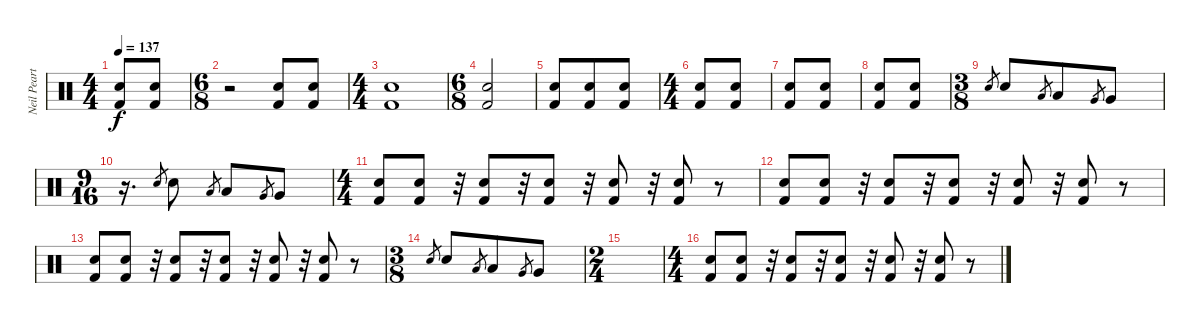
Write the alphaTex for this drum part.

\track ("Neil Peart, Percusión" "Neil Peart") {instrument percussion}
\staff {score}
\articulation defaults
\ts (4 4)
\tempo 137
\tempo 120
\tempo 137
\clef neutral
\ks c
("Electric Snare (hit)" "Kick (hit) 2").8{dy f} ("Electric Snare (hit)" "Kick (hit) 2").8 |
\ts (6 8)
r.2 ("Electric Snare (hit)" "Kick (hit) 2").8 ("Electric Snare (hit)" "Kick (hit) 2").8 |
\ts (4 4)
("Electric Snare (hit)" "Kick (hit) 2").1 |
\ts (6 8)
("Electric Snare (hit)" "Kick (hit) 2").2 |
("Electric Snare (hit)" "Kick (hit) 2").8 ("Electric Snare (hit)" "Kick (hit) 2").8 ("Electric Snare (hit)" "Kick (hit) 2").8 |
\ts (4 4)
("Electric Snare (hit)" "Kick (hit) 2").8 ("Electric Snare (hit)" "Kick (hit) 2").8 |
("Electric Snare (hit)" "Kick (hit) 2").8 ("Electric Snare (hit)" "Kick (hit) 2").8 |
("Electric Snare (hit)" "Kick (hit) 2").8 ("Electric Snare (hit)" "Kick (hit) 2").8 |
\ts (3 8)
"Electric Snare (hit)".8{gr} "Electric Snare (hit)".8 "Low Tom (hit)".8{gr} "Low Tom (hit)".8 "Very Low Tom (hit)".8{gr} "Very Low Tom (hit)".8 |
\ts (9 16)
r.16{d} "Electric Snare (hit)".8{gr} "Electric Snare (hit)".8 "Low Tom (hit)".8{gr} "Low Tom (hit)".8 "Very Low Tom (hit)".8{gr} "Very Low Tom (hit)".8 |
\ts (4 4)
("Electric Snare (hit)" "Kick (hit) 2").8 ("Electric Snare (hit)" "Kick (hit) 2").8 r.32 ("Electric Snare (hit)" "Kick (hit) 2").8{volume 10} r.32 ("Electric Snare (hit)" "Kick (hit) 2").8{volume 8} r.32 ("Electric Snare (hit)" "Kick (hit) 2").8{volume 5} r.32 ("Electric Snare (hit)" "Kick (hit) 2").8{volume 2} r.8 |
("Electric Snare (hit)" "Kick (hit) 2").8{volume 13} ("Electric Snare (hit)" "Kick (hit) 2").8 r.32 ("Electric Snare (hit)" "Kick (hit) 2").8{volume 10} r.32 ("Electric Snare (hit)" "Kick (hit) 2").8{volume 8} r.32 ("Electric Snare (hit)" "Kick (hit) 2").8{volume 5} r.32 ("Electric Snare (hit)" "Kick (hit) 2").8{volume 2} r.8 |
("Electric Snare (hit)" "Kick (hit) 2").8{volume 13} ("Electric Snare (hit)" "Kick (hit) 2").8 r.32 ("Electric Snare (hit)" "Kick (hit) 2").8{volume 10 balance 16} r.32 ("Electric Snare (hit)" "Kick (hit) 2").8{volume 8 balance 0} r.32 ("Electric Snare (hit)" "Kick (hit) 2").8{volume 5 balance 16} r.32 ("Electric Snare (hit)" "Kick (hit) 2").8{volume 2 balance 0} r.8{volume 13 balance 8} |
\ts (3 8)
"Electric Snare (hit)".8{gr} "Electric Snare (hit)".8 "Low Tom (hit)".8{gr} "Low Tom (hit)".8 "Very Low Tom (hit)".8{gr} "Very Low Tom (hit)".8 |
\ts (2 4)
|
\ts (4 4)
("Electric Snare (hit)" "Kick (hit) 2").8 ("Electric Snare (hit)" "Kick (hit) 2").8 r.32 ("Electric Snare (hit)" "Kick (hit) 2").8{volume 10 balance 16} r.32 ("Electric Snare (hit)" "Kick (hit) 2").8{volume 8 balance 0} r.32 ("Electric Snare (hit)" "Kick (hit) 2").8{volume 5 balance 16} r.32 ("Electric Snare (hit)" "Kick (hit) 2").8{volume 2 balance 0} r.8{volume 13 balance 8}
